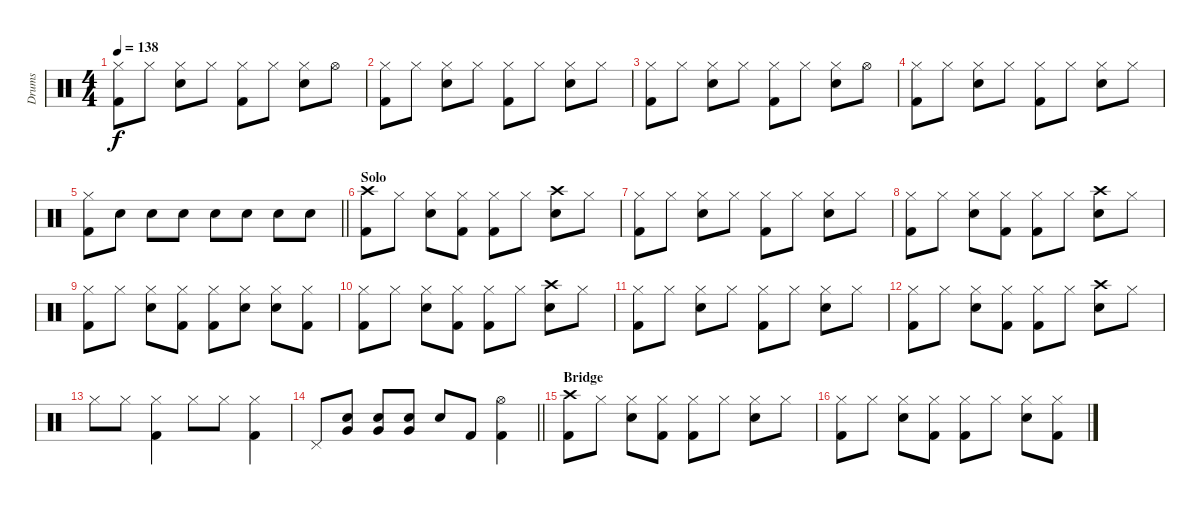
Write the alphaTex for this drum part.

\track ("Drums" "Drums") {instrument percussion}
\staff {score}
\articulation defaults
\ts (4 4)
\tempo 138
\clef neutral
\ks c
("Hi-Hat (closed)" "Kick (hit) 2").8{dy f} "Hi-Hat (closed)".8 ("Hi-Hat (closed)" "Snare (hit) 2").8 "Hi-Hat (closed)".8 ("Hi-Hat (closed)" "Kick (hit) 2").8 "Hi-Hat (closed)".8 ("Hi-Hat (closed)" "Snare (hit) 2").8 "Hi-Hat (open)".8 |
("Hi-Hat (closed)" "Kick (hit) 2").8 "Hi-Hat (closed)".8 ("Hi-Hat (closed)" "Snare (hit) 2").8 "Hi-Hat (closed)".8 ("Hi-Hat (closed)" "Kick (hit) 2").8 "Hi-Hat (closed)".8 ("Hi-Hat (closed)" "Snare (hit) 2").8 "Hi-Hat (closed)".8 |
("Hi-Hat (closed)" "Kick (hit) 2").8 "Hi-Hat (closed)".8 ("Hi-Hat (closed)" "Snare (hit) 2").8 "Hi-Hat (closed)".8 ("Hi-Hat (closed)" "Kick (hit) 2").8 "Hi-Hat (closed)".8 ("Hi-Hat (closed)" "Snare (hit) 2").8 "Hi-Hat (open)".8 |
("Hi-Hat (closed)" "Kick (hit) 2").8 "Hi-Hat (closed)".8 ("Hi-Hat (closed)" "Snare (hit) 2").8 "Hi-Hat (closed)".8 ("Hi-Hat (closed)" "Kick (hit) 2").8 "Hi-Hat (closed)".8 ("Hi-Hat (closed)" "Snare (hit) 2").8 "Hi-Hat (closed)".8 |
\barLineRight lightlight
("Hi-Hat (closed)" "Kick (hit) 2").8 "Snare (hit) 2".8 "Snare (hit) 2".8 "Snare (hit) 2".8 "Snare (hit) 2".8 "Snare (hit) 2".8 "Snare (hit) 2".8 "Snare (hit) 2".8 |
\section ("" "Solo")
("Crash high (hit)" "Kick (hit) 2").8 "Hi-Hat (closed)".8 ("Hi-Hat (closed)" "Snare (hit) 2").8 ("Hi-Hat (closed)" "Kick (hit) 2").8 ("Hi-Hat (closed)" "Kick (hit) 2").8 "Hi-Hat (closed)".8 ("Crash high (hit)" "Snare (hit) 2").8 "Hi-Hat (closed)".8 |
("Hi-Hat (closed)" "Kick (hit) 2").8 "Hi-Hat (closed)".8 ("Hi-Hat (closed)" "Snare (hit) 2").8 "Hi-Hat (closed)".8 ("Hi-Hat (closed)" "Kick (hit) 2").8 "Hi-Hat (closed)".8 ("Hi-Hat (closed)" "Snare (hit) 2").8 "Hi-Hat (closed)".8 |
("Hi-Hat (closed)" "Kick (hit) 2").8 "Hi-Hat (closed)".8 ("Hi-Hat (closed)" "Snare (hit) 2").8 ("Hi-Hat (closed)" "Kick (hit) 2").8 ("Hi-Hat (closed)" "Kick (hit) 2").8 "Hi-Hat (closed)".8 ("Crash high (hit)" "Snare (hit) 2").8 "Hi-Hat (closed)".8 |
("Hi-Hat (closed)" "Kick (hit) 2").8 "Hi-Hat (closed)".8 ("Hi-Hat (closed)" "Snare (hit) 2").8 ("Hi-Hat (closed)" "Kick (hit) 2").8 ("Hi-Hat (closed)" "Kick (hit) 2").8 ("Hi-Hat (closed)" "Snare (hit) 2").8 ("Hi-Hat (closed)" "Snare (hit) 2").8 ("Hi-Hat (closed)" "Kick (hit) 2").8 |
("Hi-Hat (closed)" "Kick (hit) 2").8 "Hi-Hat (closed)".8 ("Hi-Hat (closed)" "Snare (hit) 2").8 ("Hi-Hat (closed)" "Kick (hit) 2").8 ("Hi-Hat (closed)" "Kick (hit) 2").8 "Hi-Hat (closed)".8 ("Crash high (hit)" "Snare (hit) 2").8 "Hi-Hat (closed)".8 |
("Hi-Hat (closed)" "Kick (hit) 2").8 "Hi-Hat (closed)".8 ("Hi-Hat (closed)" "Snare (hit) 2").8 "Hi-Hat (closed)".8 ("Hi-Hat (closed)" "Kick (hit) 2").8 "Hi-Hat (closed)".8 ("Hi-Hat (closed)" "Snare (hit) 2").8 "Hi-Hat (closed)".8 |
("Hi-Hat (closed)" "Kick (hit) 2").8 "Hi-Hat (closed)".8 ("Hi-Hat (closed)" "Snare (hit) 2").8 ("Hi-Hat (closed)" "Kick (hit) 2").8 ("Hi-Hat (closed)" "Kick (hit) 2").8 "Hi-Hat (closed)".8 ("Crash high (hit)" "Snare (hit) 2").8 "Hi-Hat (closed)".8 |
"Hi-Hat (closed)".8 "Hi-Hat (closed)".8 ("Hi-Hat (closed)" "Kick (hit) 2").4 "Hi-Hat (closed)".8 "Hi-Hat (closed)".8 ("Hi-Hat (closed)" "Kick (hit) 2").4 |
\barLineRight lightlight "Pedal Hi-Hat (hit)".8
("Snare (hit) 2" "Very Low Tom (hit)").8 ("Snare (hit) 2" "Very Low Tom (hit)").8 ("Snare (hit) 2" "Very Low Tom (hit)").8 "Snare (hit) 2".8 "Kick (hit) 2".8 ("Hi-Hat (open)" "Kick (hit) 2").4 |
\section ("" "Bridge")
("Crash high (hit)" "Kick (hit) 2").8 "Hi-Hat (closed)".8 ("Hi-Hat (closed)" "Snare (hit) 2").8 ("Hi-Hat (closed)" "Kick (hit) 2").8 ("Hi-Hat (closed)" "Kick (hit) 2").8 "Hi-Hat (closed)".8 ("Hi-Hat (closed)" "Snare (hit) 2").8 "Hi-Hat (closed)".8 |
("Hi-Hat (closed)" "Kick (hit) 2").8 "Hi-Hat (closed)".8 ("Hi-Hat (closed)" "Snare (hit) 2").8 ("Hi-Hat (closed)" "Kick (hit) 2").8 ("Hi-Hat (closed)" "Kick (hit) 2").8 "Hi-Hat (closed)".8 ("Hi-Hat (closed)" "Snare (hit) 2").8 ("Hi-Hat (closed)" "Kick (hit) 2").8
